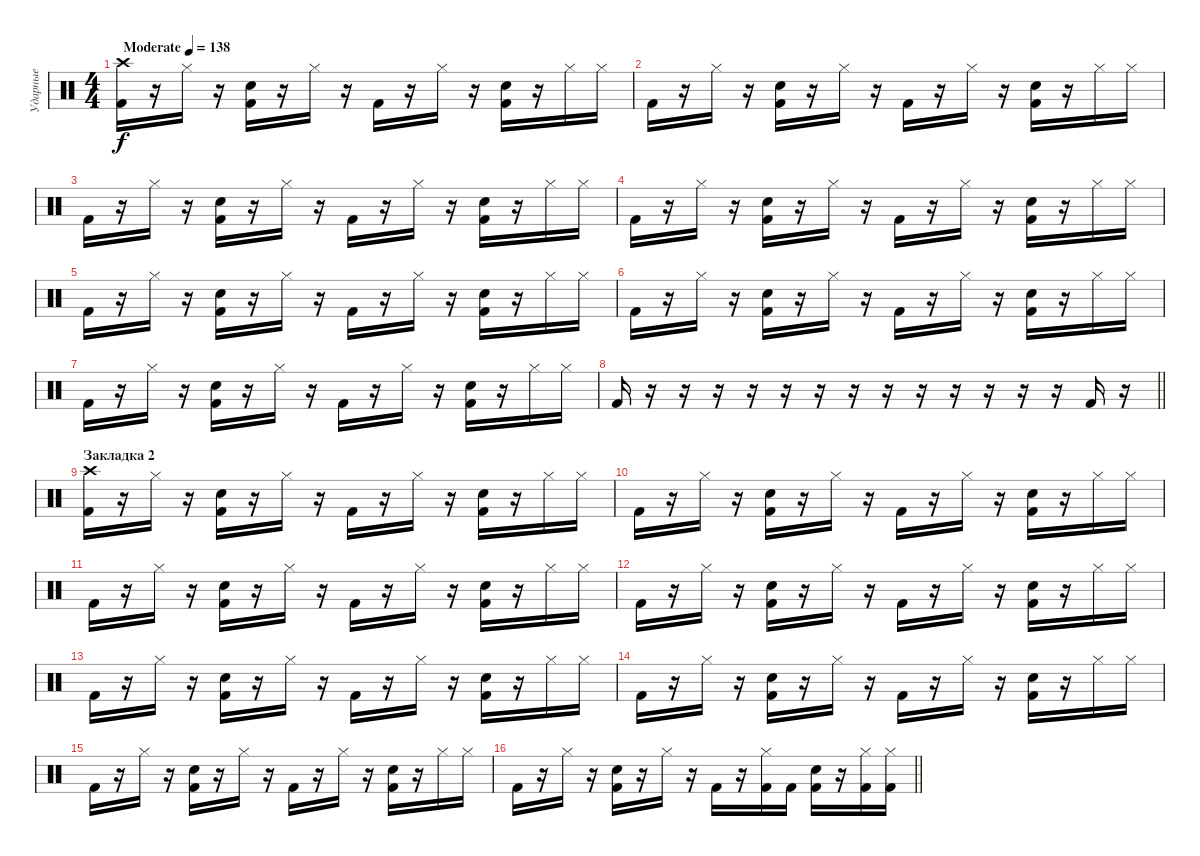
\track ("Ударные" "Ударные") {instrument percussion}
\staff {score}
\articulation defaults
\ts (4 4)
\tempo (138 "Moderate")
\clef neutral
\ks c
("Crash high (hit)" "Kick (hit) 2").16{dy f} r.16 "Hi-Hat (closed)".16 r.16 ("Electric Snare (hit)" "Kick (hit) 2").16 r.16 "Hi-Hat (closed)".16 r.16 "Kick (hit) 2".16 r.16 "Hi-Hat (closed)".16 r.16 ("Electric Snare (hit)" "Kick (hit) 2").16 r.16 "Hi-Hat (closed)".16 "Hi-Hat (closed)".16 |
"Kick (hit) 2".16 r.16 "Hi-Hat (closed)".16 r.16 ("Electric Snare (hit)" "Kick (hit) 2").16 r.16 "Hi-Hat (closed)".16 r.16 "Kick (hit) 2".16 r.16 "Hi-Hat (closed)".16 r.16 ("Electric Snare (hit)" "Kick (hit) 2").16 r.16 "Hi-Hat (closed)".16 "Hi-Hat (closed)".16 |
"Kick (hit) 2".16 r.16 "Hi-Hat (closed)".16 r.16 ("Electric Snare (hit)" "Kick (hit) 2").16 r.16 "Hi-Hat (closed)".16 r.16 "Kick (hit) 2".16 r.16 "Hi-Hat (closed)".16 r.16 ("Electric Snare (hit)" "Kick (hit) 2").16 r.16 "Hi-Hat (closed)".16 "Hi-Hat (closed)".16 |
"Kick (hit) 2".16 r.16 "Hi-Hat (closed)".16 r.16 ("Electric Snare (hit)" "Kick (hit) 2").16 r.16 "Hi-Hat (closed)".16 r.16 "Kick (hit) 2".16 r.16 "Hi-Hat (closed)".16 r.16 ("Electric Snare (hit)" "Kick (hit) 2").16 r.16 "Hi-Hat (closed)".16 "Hi-Hat (closed)".16 |
"Kick (hit) 2".16 r.16 "Hi-Hat (closed)".16 r.16 ("Electric Snare (hit)" "Kick (hit) 2").16 r.16 "Hi-Hat (closed)".16 r.16 "Kick (hit) 2".16 r.16 "Hi-Hat (closed)".16 r.16 ("Electric Snare (hit)" "Kick (hit) 2").16 r.16 "Hi-Hat (closed)".16 "Hi-Hat (closed)".16 |
"Kick (hit) 2".16 r.16 "Hi-Hat (closed)".16 r.16 ("Electric Snare (hit)" "Kick (hit) 2").16 r.16 "Hi-Hat (closed)".16 r.16 "Kick (hit) 2".16 r.16 "Hi-Hat (closed)".16 r.16 ("Electric Snare (hit)" "Kick (hit) 2").16 r.16 "Hi-Hat (closed)".16 "Hi-Hat (closed)".16 |
"Kick (hit) 2".16 r.16 "Hi-Hat (closed)".16 r.16 ("Electric Snare (hit)" "Kick (hit) 2").16 r.16 "Hi-Hat (closed)".16 r.16 "Kick (hit) 2".16 r.16 "Hi-Hat (closed)".16 r.16 ("Electric Snare (hit)" "Kick (hit) 2").16 r.16 "Hi-Hat (closed)".16 "Hi-Hat (closed)".16 |
\barLineRight lightlight "Kick (hit) 2".16
r.16 r.16 r.16 r.16 r.16 r.16 r.16 r.16 r.16 r.16 r.16 r.16 r.16 "Kick (hit) 2".16 r.16 |
\section ("" "Закладка 2")
("Crash high (hit)" "Kick (hit) 2").16 r.16 "Hi-Hat (closed)".16 r.16 ("Electric Snare (hit)" "Kick (hit) 2").16 r.16 "Hi-Hat (closed)".16 r.16 "Kick (hit) 2".16 r.16 "Hi-Hat (closed)".16 r.16 ("Electric Snare (hit)" "Kick (hit) 2").16 r.16 "Hi-Hat (closed)".16 "Hi-Hat (closed)".16 |
"Kick (hit) 2".16 r.16 "Hi-Hat (closed)".16 r.16 ("Electric Snare (hit)" "Kick (hit) 2").16 r.16 "Hi-Hat (closed)".16 r.16 "Kick (hit) 2".16 r.16 "Hi-Hat (closed)".16 r.16 ("Electric Snare (hit)" "Kick (hit) 2").16 r.16 "Hi-Hat (closed)".16 "Hi-Hat (closed)".16 |
"Kick (hit) 2".16 r.16 "Hi-Hat (closed)".16 r.16 ("Electric Snare (hit)" "Kick (hit) 2").16 r.16 "Hi-Hat (closed)".16 r.16 "Kick (hit) 2".16 r.16 "Hi-Hat (closed)".16 r.16 ("Electric Snare (hit)" "Kick (hit) 2").16 r.16 "Hi-Hat (closed)".16 "Hi-Hat (closed)".16 |
"Kick (hit) 2".16 r.16 "Hi-Hat (closed)".16 r.16 ("Electric Snare (hit)" "Kick (hit) 2").16 r.16 "Hi-Hat (closed)".16 r.16 "Kick (hit) 2".16 r.16 "Hi-Hat (closed)".16 r.16 ("Electric Snare (hit)" "Kick (hit) 2").16 r.16 "Hi-Hat (closed)".16 "Hi-Hat (closed)".16 |
"Kick (hit) 2".16 r.16 "Hi-Hat (closed)".16 r.16 ("Electric Snare (hit)" "Kick (hit) 2").16 r.16 "Hi-Hat (closed)".16 r.16 "Kick (hit) 2".16 r.16 "Hi-Hat (closed)".16 r.16 ("Electric Snare (hit)" "Kick (hit) 2").16 r.16 "Hi-Hat (closed)".16 "Hi-Hat (closed)".16 |
"Kick (hit) 2".16 r.16 "Hi-Hat (closed)".16 r.16 ("Electric Snare (hit)" "Kick (hit) 2").16 r.16 "Hi-Hat (closed)".16 r.16 "Kick (hit) 2".16 r.16 "Hi-Hat (closed)".16 r.16 ("Electric Snare (hit)" "Kick (hit) 2").16 r.16 "Hi-Hat (closed)".16 "Hi-Hat (closed)".16 |
"Kick (hit) 2".16 r.16 "Hi-Hat (closed)".16 r.16 ("Electric Snare (hit)" "Kick (hit) 2").16 r.16 "Hi-Hat (closed)".16 r.16 "Kick (hit) 2".16 r.16 "Hi-Hat (closed)".16 r.16 ("Electric Snare (hit)" "Kick (hit) 2").16 r.16 "Hi-Hat (closed)".16 "Hi-Hat (closed)".16 |
\barLineRight lightlight "Kick (hit) 2".16
r.16 "Hi-Hat (closed)".16 r.16 ("Electric Snare (hit)" "Kick (hit) 2").16 r.16 "Hi-Hat (closed)".16 r.16 "Kick (hit) 2".16 r.16 ("Hi-Hat (closed)" "Kick (hit) 2").16 "Kick (hit) 2".16 ("Electric Snare (hit)" "Kick (hit) 2").16 r.16 ("Hi-Hat (closed)" "Kick (hit) 2").16 ("Hi-Hat (closed)" "Kick (hit) 2").16
